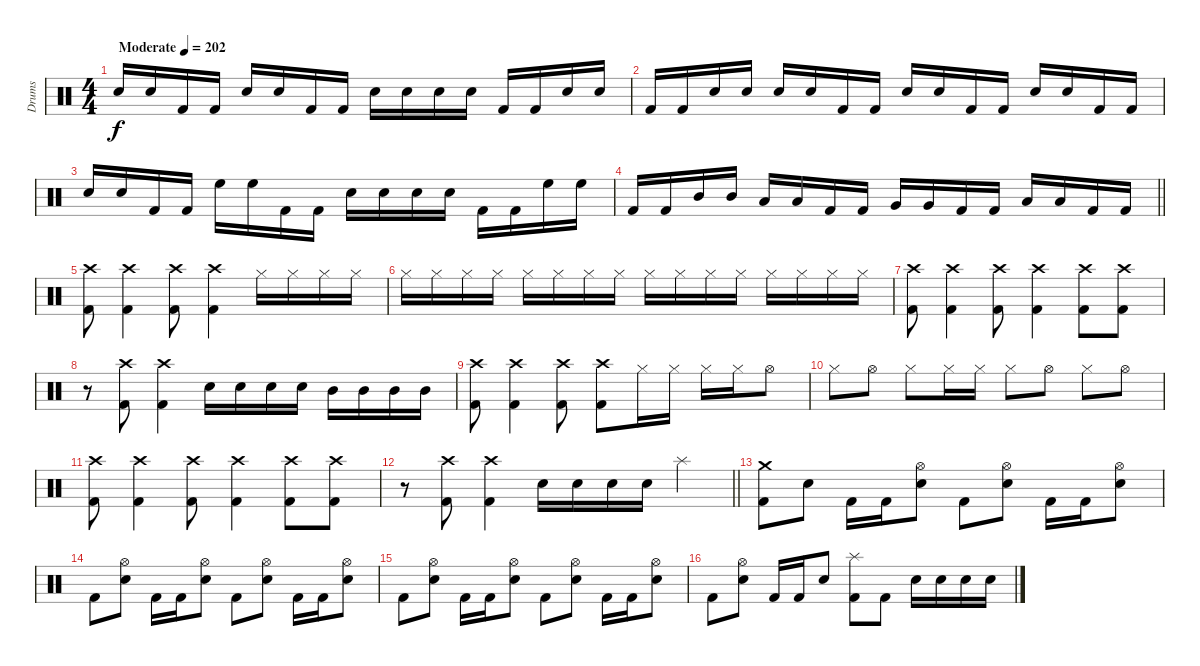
\track ("Drums" "Drums") {instrument percussion}
\staff {score}
\articulation defaults
\ts (4 4)
\section ("" "")
\tempo (202 "Moderate")
\clef neutral
\ks c "Electric Snare (hit)".16{dy f} "Electric Snare (hit)".16 "Kick (hit) 2".16 "Kick (hit) 2".16 "Electric Snare (hit)".16 "Electric Snare (hit)".16 "Kick (hit) 2".16 "Kick (hit) 2".16 "Electric Snare (hit)".16 "Electric Snare (hit)".16 "Electric Snare (hit)".16 "Electric Snare (hit)".16 "Kick (hit) 2".16 "Kick (hit) 2".16 "Electric Snare (hit)".16 "Electric Snare (hit)".16
|
"Kick (hit) 2".16 "Kick (hit) 2".16 "Electric Snare (hit)".16 "Electric Snare (hit)".16 "Electric Snare (hit)".16 "Electric Snare (hit)".16 "Kick (hit) 2".16 "Kick (hit) 2".16 "Electric Snare (hit)".16 "Electric Snare (hit)".16 "Kick (hit) 2".16 "Kick (hit) 2".16 "Electric Snare (hit)".16 "Electric Snare (hit)".16 "Kick (hit) 2".16 "Kick (hit) 2".16 |
"Electric Snare (hit)".16 "Electric Snare (hit)".16 "Kick (hit) 2".16 "Kick (hit) 2".16 "High Floor Tom (hit)".16 "High Floor Tom (hit)".16 "Kick (hit) 2".16 "Kick (hit) 2".16 "Electric Snare (hit)".16 "Electric Snare (hit)".16 "Electric Snare (hit)".16 "Electric Snare (hit)".16 "Kick (hit) 2".16 "Kick (hit) 2".16 "High Floor Tom (hit)".16 "High Floor Tom (hit)".16 |
\barLineRight lightlight "Kick (hit) 2".16 "Kick (hit) 2".16 "Mid Tom (hit)".16 "Mid Tom (hit)".16 "Low Tom (hit)".16 "Low Tom (hit)".16 "Kick (hit) 2".16 "Kick (hit) 2".16 "Very Low Tom (hit)".16 "Very Low Tom (hit)".16 "Kick (hit) 2".16 "Kick (hit) 2".16 "Low Floor Tom (hit)".16 "Low Floor Tom (hit)".16 "Kick (hit) 2".16 "Kick (hit) 2".16
|
\section ("" "")
("Crash high (hit)" "Kick (hit) 2").8 ("Crash high (hit)" "Kick (hit) 2").4 ("Crash high (hit)" "Kick (hit) 2").8 ("Crash high (hit)" "Kick (hit) 2").4 "Hi-Hat (closed)".16 "Hi-Hat (closed)".16 "Hi-Hat (closed)".16 "Hi-Hat (closed)".16 |
"Hi-Hat (closed)".16 "Hi-Hat (closed)".16 "Hi-Hat (closed)".16 "Hi-Hat (closed)".16 "Hi-Hat (closed)".16 "Hi-Hat (closed)".16 "Hi-Hat (closed)".16 "Hi-Hat (closed)".16 "Hi-Hat (closed)".16 "Hi-Hat (closed)".16 "Hi-Hat (closed)".16 "Hi-Hat (closed)".16 "Hi-Hat (closed)".16 "Hi-Hat (closed)".16 "Hi-Hat (closed)".16 "Hi-Hat (closed)".16 |
("Crash high (hit)" "Kick (hit) 2").8 ("Crash high (hit)" "Kick (hit) 2").4 ("Crash high (hit)" "Kick (hit) 2").8 ("Crash high (hit)" "Kick (hit) 2").4 ("Crash high (hit)" "Kick (hit) 2").8 ("Crash high (hit)" "Kick (hit) 2").8 |
r.8 ("Crash high (hit)" "Kick (hit) 2").8 ("Crash high (hit)" "Kick (hit) 2").4 "Electric Snare (hit)".16 "Electric Snare (hit)".16 "Electric Snare (hit)".16 "Electric Snare (hit)".16 "Mid Tom (hit)".16 "Mid Tom (hit)".16 "Mid Tom (hit)".16 "Mid Tom (hit)".16 |
("Crash high (hit)" "Kick (hit) 2").8 ("Crash high (hit)" "Kick (hit) 2").4 ("Crash high (hit)" "Kick (hit) 2").8 ("Crash high (hit)" "Kick (hit) 2").8 "Hi-Hat (closed)".16 "Hi-Hat (closed)".16 "Hi-Hat (closed)".16 "Hi-Hat (closed)".16 "Hi-Hat (open)".8 |
"Hi-Hat (closed)".8 "Hi-Hat (open)".8 "Hi-Hat (closed)".8 "Hi-Hat (closed)".16 "Hi-Hat (closed)".16 "Hi-Hat (closed)".8 "Hi-Hat (open)".8 "Hi-Hat (closed)".8 "Hi-Hat (open)".8 |
("Crash high (hit)" "Kick (hit) 2").8 ("Crash high (hit)" "Kick (hit) 2").4 ("Crash high (hit)" "Kick (hit) 2").8 ("Crash high (hit)" "Kick (hit) 2").4 ("Crash high (hit)" "Kick (hit) 2").8 ("Crash high (hit)" "Kick (hit) 2").8 |
\barLineRight lightlight
r.8 ("Crash high (hit)" "Kick (hit) 2").8 ("Crash high (hit)" "Kick (hit) 2").4 "Electric Snare (hit)".16 "Electric Snare (hit)".16 "Electric Snare (hit)".16 "Electric Snare (hit)".16 "Splash (hit)".4 |
\section ("" "")
("Crash medium (hit)" "Kick (hit) 2").8 "Electric Snare (hit)".8 "Kick (hit) 2".16 "Kick (hit) 2".16 ("Hi-Hat (open)" "Electric Snare (hit)").8 "Kick (hit) 2".8 ("Hi-Hat (open)" "Electric Snare (hit)").8 "Kick (hit) 2".16 "Kick (hit) 2".16 ("Hi-Hat (open)" "Electric Snare (hit)").8 |
"Kick (hit) 2".8 ("Hi-Hat (open)" "Electric Snare (hit)").8 "Kick (hit) 2".16 "Kick (hit) 2".16 ("Hi-Hat (open)" "Electric Snare (hit)").8 "Kick (hit) 2".8 ("Hi-Hat (open)" "Electric Snare (hit)").8 "Kick (hit) 2".16 "Kick (hit) 2".16 ("Hi-Hat (open)" "Electric Snare (hit)").8 |
"Kick (hit) 2".8 ("Hi-Hat (open)" "Electric Snare (hit)").8 "Kick (hit) 2".16 "Kick (hit) 2".16 ("Hi-Hat (open)" "Electric Snare (hit)").8 "Kick (hit) 2".8 ("Hi-Hat (open)" "Electric Snare (hit)").8 "Kick (hit) 2".16 "Kick (hit) 2".16 ("Hi-Hat (open)" "Electric Snare (hit)").8 |
"Kick (hit) 2".8 ("Hi-Hat (open)" "Electric Snare (hit)").8 "Kick (hit) 2".16 "Kick (hit) 2".16 "Electric Snare (hit)".8 ("Splash (hit)" "Kick (hit) 2").8 "Kick (hit) 2".8 "Electric Snare (hit)".16 "Electric Snare (hit)".16 "Electric Snare (hit)".16 "Electric Snare (hit)".16
